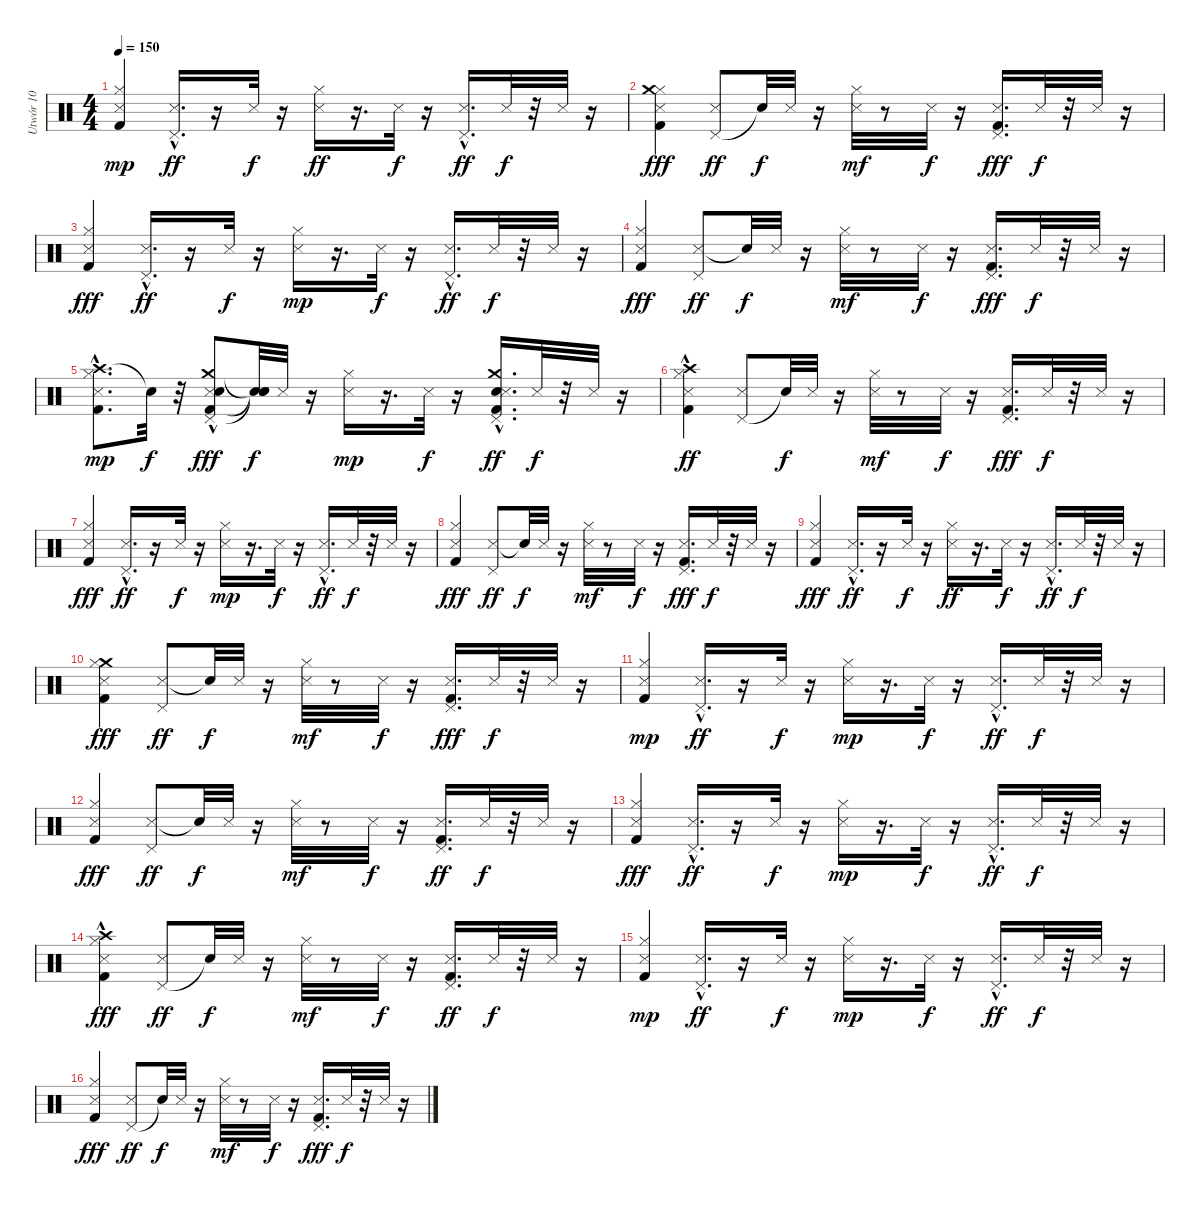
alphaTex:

\track ("Utwór 10" "Utwór 10") {instrument percussion}
\staff {score}
\articulation defaults
\ts (4 4)
\tempo 150
\clef neutral
\ks c
("Kick (hit) 2" "Hi-Hat (closed)" "Snare (side stick) 3").4{dy mp} ("Pedal Hi-Hat (hit)"{hac} "Snare (side stick) 3").16{d dy ff} r.16 "Snare (side stick) 3".32{dy f} r.16 ("Hi-Hat (closed)" "Snare (side stick) 3").16{dy ff} r.16{d} "Snare (side stick) 3".32{dy f} r.16 ("Pedal Hi-Hat (hit)"{hac} "Snare (side stick) 3").16{d dy ff} "Snare (side stick) 3".32{dy f} r.32 "Snare (side stick) 3".32 r.16 |
("Hi-Hat (closed)" "Snare (side stick) 3" "Crash medium (hit)" "Kick (hit) 2").4{dy fff} ("Pedal Hi-Hat (hit)" "Snare (side stick) 3").8{dy ff} "Snare (hit)"{t}.32{dy f} "Snare (side stick) 3".32 r.16 ("Snare (side stick) 3" "Hi-Hat (closed)").32{dy mf} r.8 "Snare (side stick) 3".32{dy f} r.16 ("Pedal Hi-Hat (hit)" "Kick (hit) 2" "Snare (side stick) 3").16{d dy fff} "Snare (side stick) 3".32{dy f} r.32 "Snare (side stick) 3".32 r.16 |
("Snare (side stick) 3" "Hi-Hat (closed)" "Kick (hit) 2").4{dy fff} ("Pedal Hi-Hat (hit)"{hac} "Snare (side stick) 3").16{d dy ff} r.16 "Snare (side stick) 3".32{dy f} r.16 ("Snare (side stick) 3" "Hi-Hat (closed)").16{dy mp} r.16{d} "Snare (side stick) 3".32{dy f} r.16 ("Snare (side stick) 3" "Pedal Hi-Hat (hit)"{hac}).16{d dy ff} "Snare (side stick) 3".32{dy f} r.32 "Snare (side stick) 3".32 r.16 |
("Kick (hit) 2" "Snare (side stick) 3" "Hi-Hat (closed)").4{dy fff} ("Snare (side stick) 3" "Pedal Hi-Hat (hit)").8{dy ff} "Snare (hit)"{t}.32{dy f} "Snare (side stick) 3".32 r.16 ("Snare (side stick) 3" "Hi-Hat (closed)").32{dy mf} r.8 "Snare (side stick) 3".32{dy f} r.16 ("Pedal Hi-Hat (hit)" "Kick (hit) 2" "Snare (side stick) 3").16{d dy fff} "Snare (side stick) 3".32{dy f} r.32 "Snare (side stick) 3".32 r.16 |
("Crash high (hit)"{hac} "Snare (side stick) 3" "Kick (hit) 2"{hac} "Hi-Hat (closed)").8{d dy mp} "Snare (hit)"{t}.32{dy f} r.32 ("Pedal Hi-Hat (hit)"{hac} "Crash medium (hit)" "Kick (hit) 2" "Snare (side stick) 3" "Snare (hit) 2").8{dy fff} ("Snare (hit)"{t} "Snare (hit)"{t} "Snare (hit)"{t}).32{dy f} "Snare (side stick) 3".32 r.16 ("Snare (side stick) 3" "Hi-Hat (closed)").16{dy mp} r.16{d} "Snare (side stick) 3".32{dy f} r.16 ("Snare (hit) 2"{hac} "Kick (hit) 2"{hac} "Crash medium (hit)" "Snare (side stick) 3" "Pedal Hi-Hat (hit)"{hac}).16{d dy ff} "Snare (side stick) 3".32{dy f} r.32 "Snare (side stick) 3".32 r.16 |
("Hi-Hat (closed)" "Snare (side stick) 3" "Kick (hit) 2" "Crash high (hit)"{hac}).4{dy ff} ("Pedal Hi-Hat (hit)" "Snare (side stick) 3").8 "Snare (hit)"{t}.32{dy f} "Snare (side stick) 3".32 r.16 ("Hi-Hat (closed)" "Snare (side stick) 3").32{dy mf} r.8 "Snare (side stick) 3".32{dy f} r.16 ("Snare (side stick) 3" "Pedal Hi-Hat (hit)" "Kick (hit) 2").16{d dy fff} "Snare (side stick) 3".32{dy f} r.32 "Snare (side stick) 3".32 r.16 |
("Hi-Hat (closed)" "Kick (hit) 2" "Snare (side stick) 3").4{dy fff} ("Snare (side stick) 3" "Pedal Hi-Hat (hit)"{hac}).16{d dy ff} r.16 "Snare (side stick) 3".32{dy f} r.16 ("Snare (side stick) 3" "Hi-Hat (closed)").16{dy mp} r.16{d} "Snare (side stick) 3".32{dy f} r.16 ("Pedal Hi-Hat (hit)"{hac} "Snare (side stick) 3").16{d dy ff} "Snare (side stick) 3".32{dy f} r.32 "Snare (side stick) 3".32 r.16 |
("Kick (hit) 2" "Snare (side stick) 3" "Hi-Hat (closed)").4{dy fff} ("Snare (side stick) 3" "Pedal Hi-Hat (hit)").8{dy ff} "Snare (hit)"{t}.32{dy f} "Snare (side stick) 3".32 r.16 ("Snare (side stick) 3" "Hi-Hat (closed)").32{dy mf} r.8 "Snare (side stick) 3".32{dy f} r.16 ("Snare (side stick) 3" "Pedal Hi-Hat (hit)" "Kick (hit) 2").16{d dy fff} "Snare (side stick) 3".32{dy f} r.32 "Snare (side stick) 3".32 r.16 |
("Hi-Hat (closed)" "Snare (side stick) 3" "Kick (hit) 2").4{dy fff} ("Snare (side stick) 3" "Pedal Hi-Hat (hit)"{hac}).16{d dy ff} r.16 "Snare (side stick) 3".32{dy f} r.16 ("Hi-Hat (closed)" "Snare (side stick) 3").16{dy ff} r.16{d} "Snare (side stick) 3".32{dy f} r.16 ("Snare (side stick) 3" "Pedal Hi-Hat (hit)"{hac}).16{d dy ff} "Snare (side stick) 3".32{dy f} r.32 "Snare (side stick) 3".32 r.16 |
("Snare (side stick) 3" "Kick (hit) 2" "Crash medium (hit)" "Hi-Hat (closed)").4{dy fff} ("Snare (side stick) 3" "Pedal Hi-Hat (hit)").8{dy ff} "Snare (hit)"{t}.32{dy f} "Snare (side stick) 3".32 r.16 ("Snare (side stick) 3" "Hi-Hat (closed)").32{dy mf} r.8 "Snare (side stick) 3".32{dy f} r.16 ("Snare (side stick) 3" "Pedal Hi-Hat (hit)" "Kick (hit) 2").16{d dy fff} "Snare (side stick) 3".32{dy f} r.32 "Snare (side stick) 3".32 r.16 |
("Kick (hit) 2" "Hi-Hat (closed)" "Snare (side stick) 3").4{dy mp} ("Snare (side stick) 3" "Pedal Hi-Hat (hit)"{hac}).16{d dy ff} r.16 "Snare (side stick) 3".32{dy f} r.16 ("Snare (side stick) 3" "Hi-Hat (closed)").16{dy mp} r.16{d} "Snare (side stick) 3".32{dy f} r.16 ("Snare (side stick) 3" "Pedal Hi-Hat (hit)"{hac}).16{d dy ff} "Snare (side stick) 3".32{dy f} r.32 "Snare (side stick) 3".32 r.16 |
("Snare (side stick) 3" "Hi-Hat (closed)" "Kick (hit) 2").4{dy fff} ("Snare (side stick) 3" "Pedal Hi-Hat (hit)").8{dy ff} "Snare (hit)"{t}.32{dy f} "Snare (side stick) 3".32 r.16 ("Snare (side stick) 3" "Hi-Hat (closed)").32{dy mf} r.8 "Snare (side stick) 3".32{dy f} r.16 ("Kick (hit) 2" "Pedal Hi-Hat (hit)" "Snare (side stick) 3").16{d dy ff} "Snare (side stick) 3".32{dy f} r.32 "Snare (side stick) 3".32 r.16 |
("Hi-Hat (closed)" "Snare (side stick) 3" "Kick (hit) 2").4{dy fff} ("Snare (side stick) 3" "Pedal Hi-Hat (hit)"{hac}).16{d dy ff} r.16 "Snare (side stick) 3".32{dy f} r.16 ("Snare (side stick) 3" "Hi-Hat (closed)").16{dy mp} r.16{d} "Snare (side stick) 3".32{dy f} r.16 ("Snare (side stick) 3" "Pedal Hi-Hat (hit)"{hac}).16{d dy ff} "Snare (side stick) 3".32{dy f} r.32 "Snare (side stick) 3".32 r.16 |
("Crash high (hit)"{hac} "Hi-Hat (closed)" "Snare (side stick) 3" "Kick (hit) 2").4{dy fff} ("Pedal Hi-Hat (hit)" "Snare (side stick) 3").8{dy ff} "Snare (hit)"{t}.32{dy f} "Snare (side stick) 3".32 r.16 ("Hi-Hat (closed)" "Snare (side stick) 3").32{dy mf} r.8 "Snare (side stick) 3".32{dy f} r.16 ("Kick (hit) 2" "Pedal Hi-Hat (hit)" "Snare (side stick) 3").16{d dy ff} "Snare (side stick) 3".32{dy f} r.32 "Snare (side stick) 3".32 r.16 |
("Kick (hit) 2" "Snare (side stick) 3" "Hi-Hat (closed)").4{dy mp} ("Snare (side stick) 3" "Pedal Hi-Hat (hit)"{hac}).16{d dy ff} r.16 "Snare (side stick) 3".32{dy f} r.16 ("Snare (side stick) 3" "Hi-Hat (closed)").16{dy mp} r.16{d} "Snare (side stick) 3".32{dy f} r.16 ("Snare (side stick) 3" "Pedal Hi-Hat (hit)"{hac}).16{d dy ff} "Snare (side stick) 3".32{dy f} r.32 "Snare (side stick) 3".32 r.16 |
("Hi-Hat (closed)" "Kick (hit) 2" "Snare (side stick) 3").4{dy fff} ("Pedal Hi-Hat (hit)" "Snare (side stick) 3").8{dy ff} "Snare (hit)"{t}.32{dy f} "Snare (side stick) 3".32 r.16 ("Hi-Hat (closed)" "Snare (side stick) 3").32{dy mf} r.8 "Snare (side stick) 3".32{dy f} r.16 ("Pedal Hi-Hat (hit)" "Snare (side stick) 3" "Kick (hit) 2").16{d dy fff} "Snare (side stick) 3".32{dy f} r.32 "Snare (side stick) 3".32 r.16
